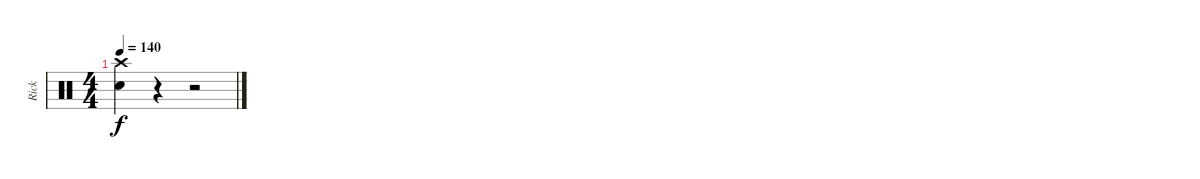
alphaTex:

\track ("Rick" "Rick") {instrument percussion}
\staff {score}
\articulation defaults
\ts (4 4)
\tempo 140
\clef neutral
\ks c
("Crash high (hit)" "Snare (hit) 2").4{dy f} r.4 r.2
